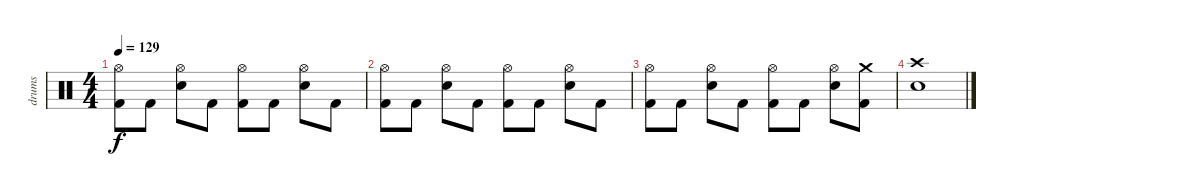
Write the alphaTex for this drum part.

\track ("drums" "drums") {instrument percussion}
\staff {score}
\articulation defaults
\ts (4 4)
\tempo 129
\clef neutral
\ks c
("Kick (hit) 2" "Hi-Hat (open)").8{dy f} "Kick (hit) 2".8 ("Hi-Hat (open)" "Snare (hit) 2").8 "Kick (hit) 2".8 ("Kick (hit) 2" "Hi-Hat (open)").8 "Kick (hit) 2".8 ("Hi-Hat (open)" "Snare (hit) 2").8 "Kick (hit) 2".8 |
("Kick (hit) 2" "Hi-Hat (open)").8 "Kick (hit) 2".8 ("Hi-Hat (open)" "Snare (hit) 2").8 "Kick (hit) 2".8 ("Kick (hit) 2" "Hi-Hat (open)").8 "Kick (hit) 2".8 ("Hi-Hat (open)" "Snare (hit) 2").8 "Kick (hit) 2".8 |
("Kick (hit) 2" "Hi-Hat (open)").8 "Kick (hit) 2".8 ("Hi-Hat (open)" "Snare (hit) 2").8 "Kick (hit) 2".8 ("Kick (hit) 2" "Hi-Hat (open)").8 "Kick (hit) 2".8 ("Hi-Hat (open)" "Snare (hit) 2").8 ("Kick (hit) 2" "Crash medium (hit)").8 |
("Crash high (hit)" "Snare (hit) 2").1
